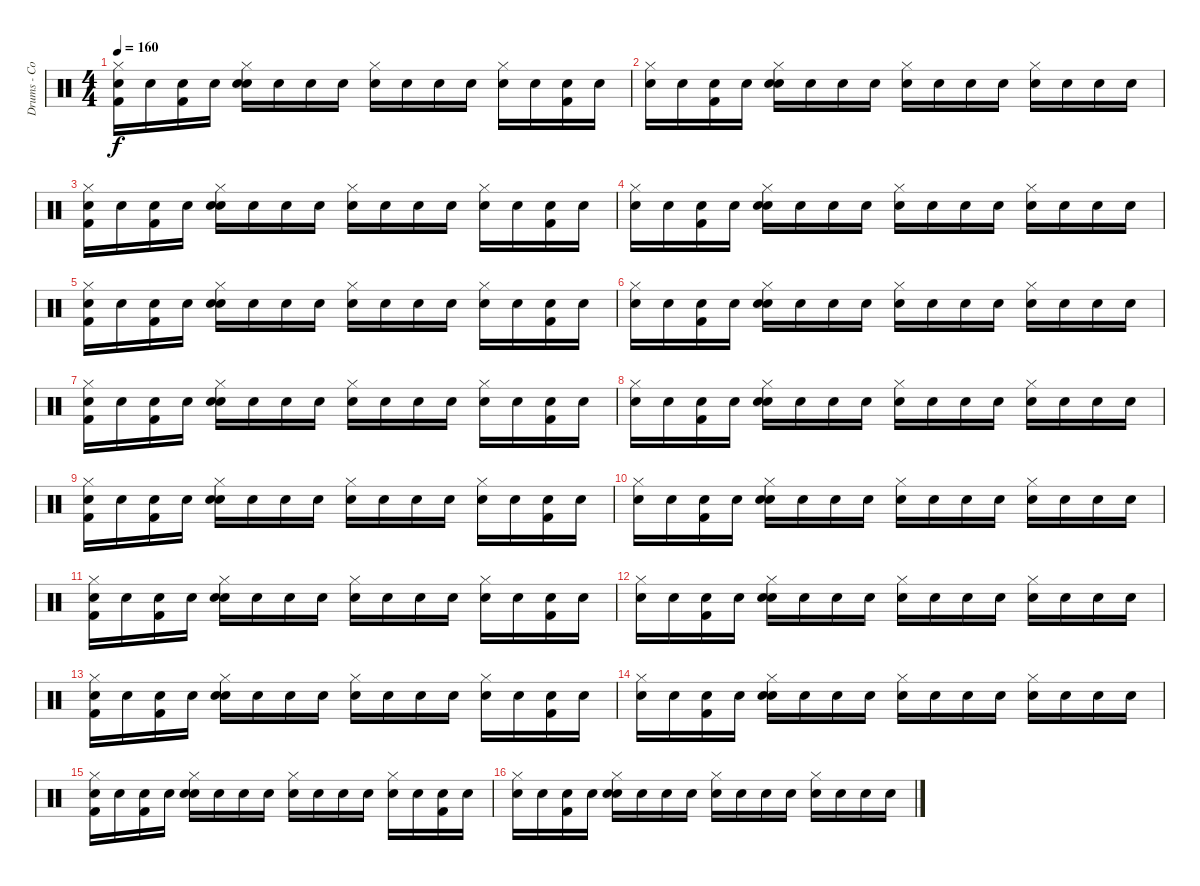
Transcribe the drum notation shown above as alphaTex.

\track ("Drums - Colby" "Drums - Co") {instrument percussion}
\staff {score}
\articulation defaults
\ts (4 4)
\tempo 160
\clef neutral
\ks c
("Snare (hit)" "Kick (hit) 2" "Hi-Hat (closed)").16{dy f} "Snare (hit)".16 ("Snare (hit)" "Kick (hit) 2").16 "Snare (hit)".16 ("Snare (hit)" "Snare (hit) 2" "Hi-Hat (closed)").16 "Snare (hit)".16 "Snare (hit)".16 "Snare (hit)".16 ("Snare (hit)" "Hi-Hat (closed)").16 "Snare (hit)".16 "Snare (hit)".16 "Snare (hit)".16 ("Snare (hit)" "Hi-Hat (closed)").16 "Snare (hit)".16 ("Snare (hit)" "Kick (hit) 2").16 "Snare (hit)".16 |
("Snare (hit)" "Hi-Hat (closed)").16 "Snare (hit)".16 ("Snare (hit)" "Kick (hit) 2").16 "Snare (hit)".16 ("Snare (hit)" "Snare (hit) 2" "Hi-Hat (closed)").16 "Snare (hit)".16 "Snare (hit)".16 "Snare (hit)".16 ("Snare (hit)" "Hi-Hat (closed)").16 "Snare (hit)".16 "Snare (hit)".16 "Snare (hit)".16 ("Snare (hit)" "Hi-Hat (closed)").16 "Snare (hit)".16 "Snare (hit)".16 "Snare (hit)".16 |
("Snare (hit)" "Kick (hit) 2" "Hi-Hat (closed)").16 "Snare (hit)".16 ("Snare (hit)" "Kick (hit) 2").16 "Snare (hit)".16 ("Snare (hit)" "Snare (hit) 2" "Hi-Hat (closed)").16 "Snare (hit)".16 "Snare (hit)".16 "Snare (hit)".16 ("Snare (hit)" "Hi-Hat (closed)").16 "Snare (hit)".16 "Snare (hit)".16 "Snare (hit)".16 ("Snare (hit)" "Hi-Hat (closed)").16 "Snare (hit)".16 ("Snare (hit)" "Kick (hit) 2").16 "Snare (hit)".16 |
("Snare (hit)" "Hi-Hat (closed)").16 "Snare (hit)".16 ("Snare (hit)" "Kick (hit) 2").16 "Snare (hit)".16 ("Snare (hit)" "Snare (hit) 2" "Hi-Hat (closed)").16 "Snare (hit)".16 "Snare (hit)".16 "Snare (hit)".16 ("Snare (hit)" "Hi-Hat (closed)").16 "Snare (hit)".16 "Snare (hit)".16 "Snare (hit)".16 ("Snare (hit)" "Hi-Hat (closed)").16 "Snare (hit)".16 "Snare (hit)".16 "Snare (hit)".16 |
("Snare (hit)" "Kick (hit) 2" "Hi-Hat (closed)").16 "Snare (hit)".16 ("Snare (hit)" "Kick (hit) 2").16 "Snare (hit)".16 ("Snare (hit)" "Snare (hit) 2" "Hi-Hat (closed)").16 "Snare (hit)".16 "Snare (hit)".16 "Snare (hit)".16 ("Snare (hit)" "Hi-Hat (closed)").16 "Snare (hit)".16 "Snare (hit)".16 "Snare (hit)".16 ("Snare (hit)" "Hi-Hat (closed)").16 "Snare (hit)".16 ("Snare (hit)" "Kick (hit) 2").16 "Snare (hit)".16 |
("Snare (hit)" "Hi-Hat (closed)").16 "Snare (hit)".16 ("Snare (hit)" "Kick (hit) 2").16 "Snare (hit)".16 ("Snare (hit)" "Snare (hit) 2" "Hi-Hat (closed)").16 "Snare (hit)".16 "Snare (hit)".16 "Snare (hit)".16 ("Snare (hit)" "Hi-Hat (closed)").16 "Snare (hit)".16 "Snare (hit)".16 "Snare (hit)".16 ("Snare (hit)" "Hi-Hat (closed)").16 "Snare (hit)".16 "Snare (hit)".16 "Snare (hit)".16 |
("Snare (hit)" "Kick (hit) 2" "Hi-Hat (closed)").16 "Snare (hit)".16 ("Snare (hit)" "Kick (hit) 2").16 "Snare (hit)".16 ("Snare (hit)" "Snare (hit) 2" "Hi-Hat (closed)").16 "Snare (hit)".16 "Snare (hit)".16 "Snare (hit)".16 ("Snare (hit)" "Hi-Hat (closed)").16 "Snare (hit)".16 "Snare (hit)".16 "Snare (hit)".16 ("Snare (hit)" "Hi-Hat (closed)").16 "Snare (hit)".16 ("Snare (hit)" "Kick (hit) 2").16 "Snare (hit)".16 |
("Snare (hit)" "Hi-Hat (closed)").16 "Snare (hit)".16 ("Snare (hit)" "Kick (hit) 2").16 "Snare (hit)".16 ("Snare (hit)" "Snare (hit) 2" "Hi-Hat (closed)").16 "Snare (hit)".16 "Snare (hit)".16 "Snare (hit)".16 ("Snare (hit)" "Hi-Hat (closed)").16 "Snare (hit)".16 "Snare (hit)".16 "Snare (hit)".16 ("Snare (hit)" "Hi-Hat (closed)").16 "Snare (hit)".16 "Snare (hit)".16 "Snare (hit)".16 |
("Snare (hit)" "Kick (hit) 2" "Hi-Hat (closed)").16 "Snare (hit)".16 ("Snare (hit)" "Kick (hit) 2").16 "Snare (hit)".16 ("Snare (hit)" "Snare (hit) 2" "Hi-Hat (closed)").16 "Snare (hit)".16 "Snare (hit)".16 "Snare (hit)".16 ("Snare (hit)" "Hi-Hat (closed)").16 "Snare (hit)".16 "Snare (hit)".16 "Snare (hit)".16 ("Snare (hit)" "Hi-Hat (closed)").16 "Snare (hit)".16 ("Snare (hit)" "Kick (hit) 2").16 "Snare (hit)".16 |
("Snare (hit)" "Hi-Hat (closed)").16 "Snare (hit)".16 ("Snare (hit)" "Kick (hit) 2").16 "Snare (hit)".16 ("Snare (hit)" "Snare (hit) 2" "Hi-Hat (closed)").16 "Snare (hit)".16 "Snare (hit)".16 "Snare (hit)".16 ("Snare (hit)" "Hi-Hat (closed)").16 "Snare (hit)".16 "Snare (hit)".16 "Snare (hit)".16 ("Snare (hit)" "Hi-Hat (closed)").16 "Snare (hit)".16 "Snare (hit)".16 "Snare (hit)".16 |
("Snare (hit)" "Kick (hit) 2" "Hi-Hat (closed)").16 "Snare (hit)".16 ("Snare (hit)" "Kick (hit) 2").16 "Snare (hit)".16 ("Snare (hit)" "Snare (hit) 2" "Hi-Hat (closed)").16 "Snare (hit)".16 "Snare (hit)".16 "Snare (hit)".16 ("Snare (hit)" "Hi-Hat (closed)").16 "Snare (hit)".16 "Snare (hit)".16 "Snare (hit)".16 ("Snare (hit)" "Hi-Hat (closed)").16 "Snare (hit)".16 ("Snare (hit)" "Kick (hit) 2").16 "Snare (hit)".16 |
("Snare (hit)" "Hi-Hat (closed)").16 "Snare (hit)".16 ("Snare (hit)" "Kick (hit) 2").16 "Snare (hit)".16 ("Snare (hit)" "Snare (hit) 2" "Hi-Hat (closed)").16 "Snare (hit)".16 "Snare (hit)".16 "Snare (hit)".16 ("Snare (hit)" "Hi-Hat (closed)").16 "Snare (hit)".16 "Snare (hit)".16 "Snare (hit)".16 ("Snare (hit)" "Hi-Hat (closed)").16 "Snare (hit)".16 "Snare (hit)".16 "Snare (hit)".16 |
("Snare (hit)" "Kick (hit) 2" "Hi-Hat (closed)").16 "Snare (hit)".16 ("Snare (hit)" "Kick (hit) 2").16 "Snare (hit)".16 ("Snare (hit)" "Snare (hit) 2" "Hi-Hat (closed)").16 "Snare (hit)".16 "Snare (hit)".16 "Snare (hit)".16 ("Snare (hit)" "Hi-Hat (closed)").16 "Snare (hit)".16 "Snare (hit)".16 "Snare (hit)".16 ("Snare (hit)" "Hi-Hat (closed)").16 "Snare (hit)".16 ("Snare (hit)" "Kick (hit) 2").16 "Snare (hit)".16 |
("Snare (hit)" "Hi-Hat (closed)").16 "Snare (hit)".16 ("Snare (hit)" "Kick (hit) 2").16 "Snare (hit)".16 ("Snare (hit)" "Snare (hit) 2" "Hi-Hat (closed)").16 "Snare (hit)".16 "Snare (hit)".16 "Snare (hit)".16 ("Snare (hit)" "Hi-Hat (closed)").16 "Snare (hit)".16 "Snare (hit)".16 "Snare (hit)".16 ("Snare (hit)" "Hi-Hat (closed)").16 "Snare (hit)".16 "Snare (hit)".16 "Snare (hit)".16 |
("Snare (hit)" "Kick (hit) 2" "Hi-Hat (closed)").16 "Snare (hit)".16 ("Snare (hit)" "Kick (hit) 2").16 "Snare (hit)".16 ("Snare (hit)" "Snare (hit) 2" "Hi-Hat (closed)").16 "Snare (hit)".16 "Snare (hit)".16 "Snare (hit)".16 ("Snare (hit)" "Hi-Hat (closed)").16 "Snare (hit)".16 "Snare (hit)".16 "Snare (hit)".16 ("Snare (hit)" "Hi-Hat (closed)").16 "Snare (hit)".16 ("Snare (hit)" "Kick (hit) 2").16 "Snare (hit)".16 |
("Snare (hit)" "Hi-Hat (closed)").16 "Snare (hit)".16 ("Snare (hit)" "Kick (hit) 2").16 "Snare (hit)".16 ("Snare (hit)" "Snare (hit) 2" "Hi-Hat (closed)").16 "Snare (hit)".16 "Snare (hit)".16 "Snare (hit)".16 ("Snare (hit)" "Hi-Hat (closed)").16 "Snare (hit)".16 "Snare (hit)".16 "Snare (hit)".16 ("Snare (hit)" "Hi-Hat (closed)").16 "Snare (hit)".16 "Snare (hit)".16 "Snare (hit)".16
